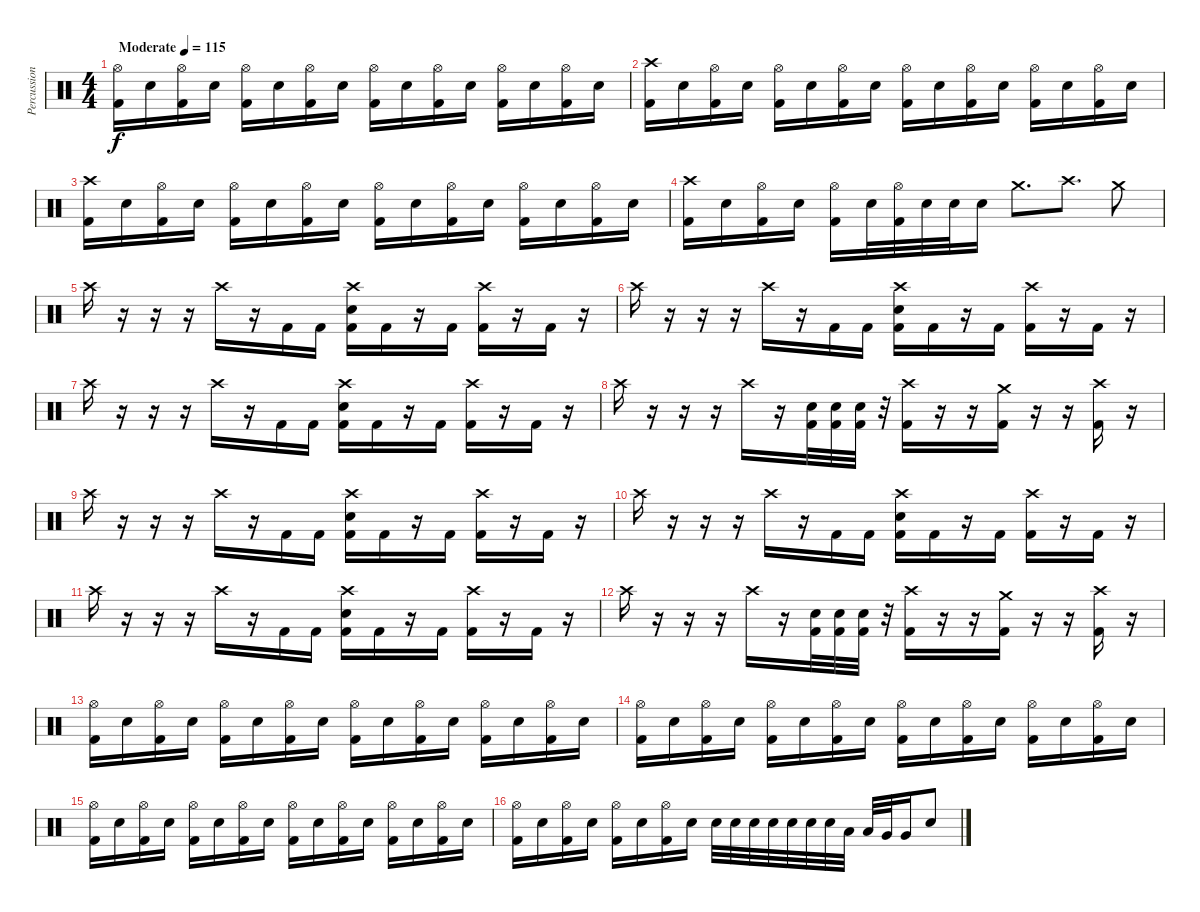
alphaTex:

\track ("Percussion" "Percussion") {instrument percussion}
\staff {score}
\articulation defaults
\ts (4 4)
\tempo (115 "Moderate")
\clef neutral
\ks c
("Hi-Hat (open)" "Kick (hit) 2").16{dy f} "Snare (hit) 2".16 ("Hi-Hat (open)" "Kick (hit) 2").16 "Snare (hit) 2".16 ("Hi-Hat (open)" "Kick (hit) 2").16 "Snare (hit) 2".16 ("Hi-Hat (open)" "Kick (hit) 2").16 "Snare (hit) 2".16 ("Hi-Hat (open)" "Kick (hit) 2").16 "Snare (hit) 2".16 ("Hi-Hat (open)" "Kick (hit) 2").16 "Snare (hit) 2".16 ("Hi-Hat (open)" "Kick (hit) 2").16 "Snare (hit) 2".16 ("Hi-Hat (open)" "Kick (hit) 2").16 "Snare (hit) 2".16 |
("Crash high (hit)" "Kick (hit) 2").16 "Snare (hit) 2".16 ("Hi-Hat (open)" "Kick (hit) 2").16 "Snare (hit) 2".16 ("Hi-Hat (open)" "Kick (hit) 2").16 "Snare (hit) 2".16 ("Hi-Hat (open)" "Kick (hit) 2").16 "Snare (hit) 2".16 ("Hi-Hat (open)" "Kick (hit) 2").16 "Snare (hit) 2".16 ("Hi-Hat (open)" "Kick (hit) 2").16 "Snare (hit) 2".16 ("Hi-Hat (open)" "Kick (hit) 2").16 "Snare (hit) 2".16 ("Hi-Hat (open)" "Kick (hit) 2").16 "Snare (hit) 2".16 |
("Crash high (hit)" "Kick (hit) 2").16 "Snare (hit) 2".16 ("Hi-Hat (open)" "Kick (hit) 2").16 "Snare (hit) 2".16 ("Hi-Hat (open)" "Kick (hit) 2").16 "Snare (hit) 2".16 ("Hi-Hat (open)" "Kick (hit) 2").16 "Snare (hit) 2".16 ("Hi-Hat (open)" "Kick (hit) 2").16 "Snare (hit) 2".16 ("Hi-Hat (open)" "Kick (hit) 2").16 "Snare (hit) 2".16 ("Hi-Hat (open)" "Kick (hit) 2").16 "Snare (hit) 2".16 ("Hi-Hat (open)" "Kick (hit) 2").16 "Snare (hit) 2".16 |
("Crash high (hit)" "Kick (hit) 2").16 "Snare (hit) 2".16 ("Hi-Hat (open)" "Kick (hit) 2").16 "Snare (hit) 2".16 ("Hi-Hat (open)" "Kick (hit) 2").16 "Snare (hit) 2".32 ("Hi-Hat (open)" "Kick (hit) 2").32 "Snare (hit) 2".32 "Snare (hit) 2".32 "Snare (hit) 2".16 "Crash medium (hit)".8{d} "Crash high (hit)".8{d} "Crash medium (hit)".8 |
"Crash high (hit)".16 r.16 r.16 r.16 "Crash high (hit)".16 r.16 "Kick (hit) 2".16 "Kick (hit) 2".16 ("Crash high (hit)" "Snare (hit) 2" "Kick (hit) 2").16 "Kick (hit) 2".16 r.16 "Kick (hit) 2".16 ("Crash high (hit)" "Kick (hit) 2").16 r.16 "Kick (hit) 2".16 r.16 |
"Crash high (hit)".16 r.16 r.16 r.16 "Crash high (hit)".16 r.16 "Kick (hit) 2".16 "Kick (hit) 2".16 ("Crash high (hit)" "Snare (hit) 2" "Kick (hit) 2").16 "Kick (hit) 2".16 r.16 "Kick (hit) 2".16 ("Crash high (hit)" "Kick (hit) 2").16 r.16 "Kick (hit) 2".16 r.16 |
"Crash high (hit)".16 r.16 r.16 r.16 "Crash high (hit)".16 r.16 "Kick (hit) 2".16 "Kick (hit) 2".16 ("Crash high (hit)" "Snare (hit) 2" "Kick (hit) 2").16 "Kick (hit) 2".16 r.16 "Kick (hit) 2".16 ("Crash high (hit)" "Kick (hit) 2").16 r.16 "Kick (hit) 2".16 r.16 |
"Crash high (hit)".16 r.16 r.16 r.16 "Crash high (hit)".16 r.16 ("Snare (hit) 2" "Kick (hit) 2").32 ("Snare (hit) 2" "Kick (hit) 2").32 ("Snare (hit) 2" "Kick (hit) 2").32 r.32 ("Crash high (hit)" "Kick (hit) 2").16 r.16 r.16 ("Crash medium (hit)" "Kick (hit) 2").16 r.16 r.16 ("Crash high (hit)" "Kick (hit) 2").16 r.16 |
"Crash high (hit)".16 r.16 r.16 r.16 "Crash high (hit)".16 r.16 "Kick (hit) 2".16 "Kick (hit) 2".16 ("Crash high (hit)" "Snare (hit) 2" "Kick (hit) 2").16 "Kick (hit) 2".16 r.16 "Kick (hit) 2".16 ("Crash high (hit)" "Kick (hit) 2").16 r.16 "Kick (hit) 2".16 r.16 |
"Crash high (hit)".16 r.16 r.16 r.16 "Crash high (hit)".16 r.16 "Kick (hit) 2".16 "Kick (hit) 2".16 ("Crash high (hit)" "Snare (hit) 2" "Kick (hit) 2").16 "Kick (hit) 2".16 r.16 "Kick (hit) 2".16 ("Crash high (hit)" "Kick (hit) 2").16 r.16 "Kick (hit) 2".16 r.16 |
"Crash high (hit)".16 r.16 r.16 r.16 "Crash high (hit)".16 r.16 "Kick (hit) 2".16 "Kick (hit) 2".16 ("Crash high (hit)" "Snare (hit) 2" "Kick (hit) 2").16 "Kick (hit) 2".16 r.16 "Kick (hit) 2".16 ("Crash high (hit)" "Kick (hit) 2").16 r.16 "Kick (hit) 2".16 r.16 |
"Crash high (hit)".16 r.16 r.16 r.16 "Crash high (hit)".16 r.16 ("Snare (hit) 2" "Kick (hit) 2").32 ("Snare (hit) 2" "Kick (hit) 2").32 ("Snare (hit) 2" "Kick (hit) 2").32 r.32 ("Crash high (hit)" "Kick (hit) 2").16 r.16 r.16 ("Crash medium (hit)" "Kick (hit) 2").16 r.16 r.16 ("Crash high (hit)" "Kick (hit) 2").16 r.16 |
("Hi-Hat (open)" "Kick (hit) 2").16 "Snare (hit) 2".16 ("Hi-Hat (open)" "Kick (hit) 2").16 "Snare (hit) 2".16 ("Hi-Hat (open)" "Kick (hit) 2").16 "Snare (hit) 2".16 ("Hi-Hat (open)" "Kick (hit) 2").16 "Snare (hit) 2".16 ("Hi-Hat (open)" "Kick (hit) 2").16 "Snare (hit) 2".16 ("Hi-Hat (open)" "Kick (hit) 2").16 "Snare (hit) 2".16 ("Hi-Hat (open)" "Kick (hit) 2").16 "Snare (hit) 2".16 ("Hi-Hat (open)" "Kick (hit) 2").16 "Snare (hit) 2".16 |
("Hi-Hat (open)" "Kick (hit) 2").16 "Snare (hit) 2".16 ("Hi-Hat (open)" "Kick (hit) 2").16 "Snare (hit) 2".16 ("Hi-Hat (open)" "Kick (hit) 2").16 "Snare (hit) 2".16 ("Hi-Hat (open)" "Kick (hit) 2").16 "Snare (hit) 2".16 ("Hi-Hat (open)" "Kick (hit) 2").16 "Snare (hit) 2".16 ("Hi-Hat (open)" "Kick (hit) 2").16 "Snare (hit) 2".16 ("Hi-Hat (open)" "Kick (hit) 2").16 "Snare (hit) 2".16 ("Hi-Hat (open)" "Kick (hit) 2").16 "Snare (hit) 2".16 |
("Hi-Hat (open)" "Kick (hit) 2").16 "Snare (hit) 2".16 ("Hi-Hat (open)" "Kick (hit) 2").16 "Snare (hit) 2".16 ("Hi-Hat (open)" "Kick (hit) 2").16 "Snare (hit) 2".16 ("Hi-Hat (open)" "Kick (hit) 2").16 "Snare (hit) 2".16 ("Hi-Hat (open)" "Kick (hit) 2").16 "Snare (hit) 2".16 ("Hi-Hat (open)" "Kick (hit) 2").16 "Snare (hit) 2".16 ("Hi-Hat (open)" "Kick (hit) 2").16 "Snare (hit) 2".16 ("Hi-Hat (open)" "Kick (hit) 2").16 "Snare (hit) 2".16 |
("Hi-Hat (open)" "Kick (hit) 2").16 "Snare (hit) 2".16 ("Hi-Hat (open)" "Kick (hit) 2").16 "Snare (hit) 2".16 ("Hi-Hat (open)" "Kick (hit) 2").16 "Snare (hit) 2".16 ("Hi-Hat (open)" "Kick (hit) 2").16 "Snare (hit) 2".16 "Snare (hit) 2".32 "Snare (hit) 2".32 "Snare (hit) 2".32 "Snare (hit) 2".32 "Snare (hit) 2".32 "Snare (hit) 2".32 "Snare (hit) 2".32 "Low Tom (hit)".32 "Low Tom (hit)".32 "Very Low Tom (hit)".32 "Very Low Tom (hit)".16 "Snare (hit) 2".8
